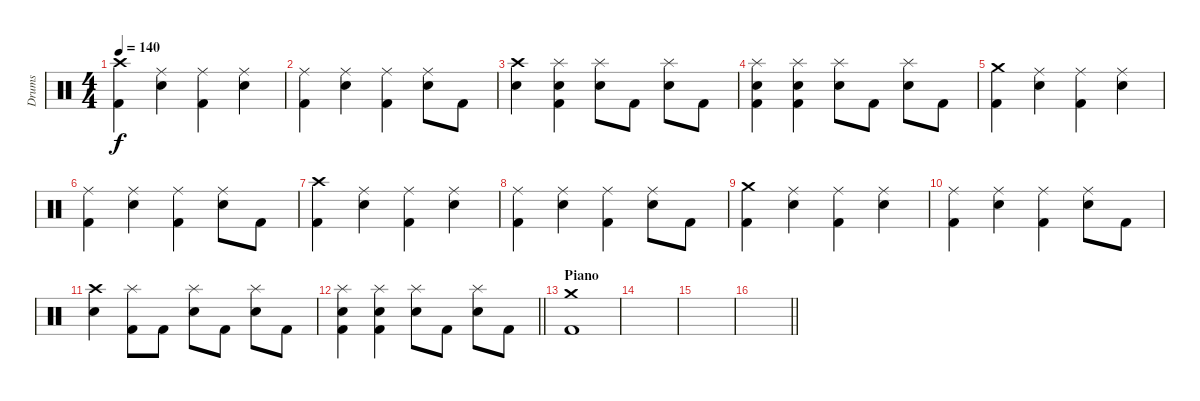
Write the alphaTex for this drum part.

\track ("Drums" "Drums") {instrument percussion}
\staff {score}
\articulation defaults
\ts (4 4)
\tempo 140
\clef neutral
\ks c
("Crash high (hit)" "Kick (hit) 2").4{dy f} ("Ride (middle)" "Electric Snare (hit)").4 ("Ride (middle)" "Kick (hit) 2").4 ("Ride (middle)" "Electric Snare (hit)").4 |
("Ride (middle)" "Kick (hit) 2").4 ("Ride (middle)" "Electric Snare (hit)").4 ("Ride (middle)" "Kick (hit) 2").4 ("Ride (middle)" "Electric Snare (hit)").8 "Kick (hit) 2".8 |
("Crash high (hit)" "Electric Snare (hit)").4 ("Splash (hit)" "Electric Snare (hit)" "Kick (hit) 2").4 ("Splash (hit)" "Electric Snare (hit)").8 "Kick (hit) 2".8 ("Splash (hit)" "Electric Snare (hit)").8 "Kick (hit) 2".8 |
("Splash (hit)" "Electric Snare (hit)" "Kick (hit) 2").4 ("Splash (hit)" "Electric Snare (hit)" "Kick (hit) 2").4 ("Splash (hit)" "Electric Snare (hit)").8 "Kick (hit) 2".8 ("Splash (hit)" "Electric Snare (hit)").8 "Kick (hit) 2".8 |
("Crash medium (hit)" "Kick (hit) 2").4 ("Ride (middle)" "Electric Snare (hit)").4 ("Ride (middle)" "Kick (hit) 2").4 ("Ride (middle)" "Electric Snare (hit)").4 |
("Ride (middle)" "Kick (hit) 2").4 ("Ride (middle)" "Electric Snare (hit)").4 ("Ride (middle)" "Kick (hit) 2").4 ("Ride (middle)" "Electric Snare (hit)").8 "Kick (hit) 2".8 |
("Crash high (hit)" "Kick (hit) 2").4 ("Ride (middle)" "Electric Snare (hit)").4 ("Ride (middle)" "Kick (hit) 2").4 ("Ride (middle)" "Electric Snare (hit)").4 |
("Ride (middle)" "Kick (hit) 2").4 ("Ride (middle)" "Electric Snare (hit)").4 ("Ride (middle)" "Kick (hit) 2").4 ("Ride (middle)" "Electric Snare (hit)").8 "Kick (hit) 2".8 |
("Crash medium (hit)" "Kick (hit) 2").4 ("Ride (middle)" "Electric Snare (hit)").4 ("Ride (middle)" "Kick (hit) 2").4 ("Ride (middle)" "Electric Snare (hit)").4 |
("Ride (middle)" "Kick (hit) 2").4 ("Ride (middle)" "Electric Snare (hit)").4 ("Ride (middle)" "Kick (hit) 2").4 ("Ride (middle)" "Electric Snare (hit)").8 "Kick (hit) 2".8 |
("Crash high (hit)" "Electric Snare (hit)").4 ("Splash (hit)" "Kick (hit) 2").8 "Kick (hit) 2".8 ("Splash (hit)" "Electric Snare (hit)").8 "Kick (hit) 2".8 ("Splash (hit)" "Electric Snare (hit)").8 "Kick (hit) 2".8 |
\barLineRight lightlight
("Splash (hit)" "Electric Snare (hit)" "Kick (hit) 2").4 ("Splash (hit)" "Electric Snare (hit)" "Kick (hit) 2").4 ("Splash (hit)" "Electric Snare (hit)").8 "Kick (hit) 2".8 ("Splash (hit)" "Electric Snare (hit)").8 "Kick (hit) 2".8 |
\section ("" "Piano")
("Crash medium (hit)" "Kick (hit) 2").1 |
|
|
\barLineRight lightlight
